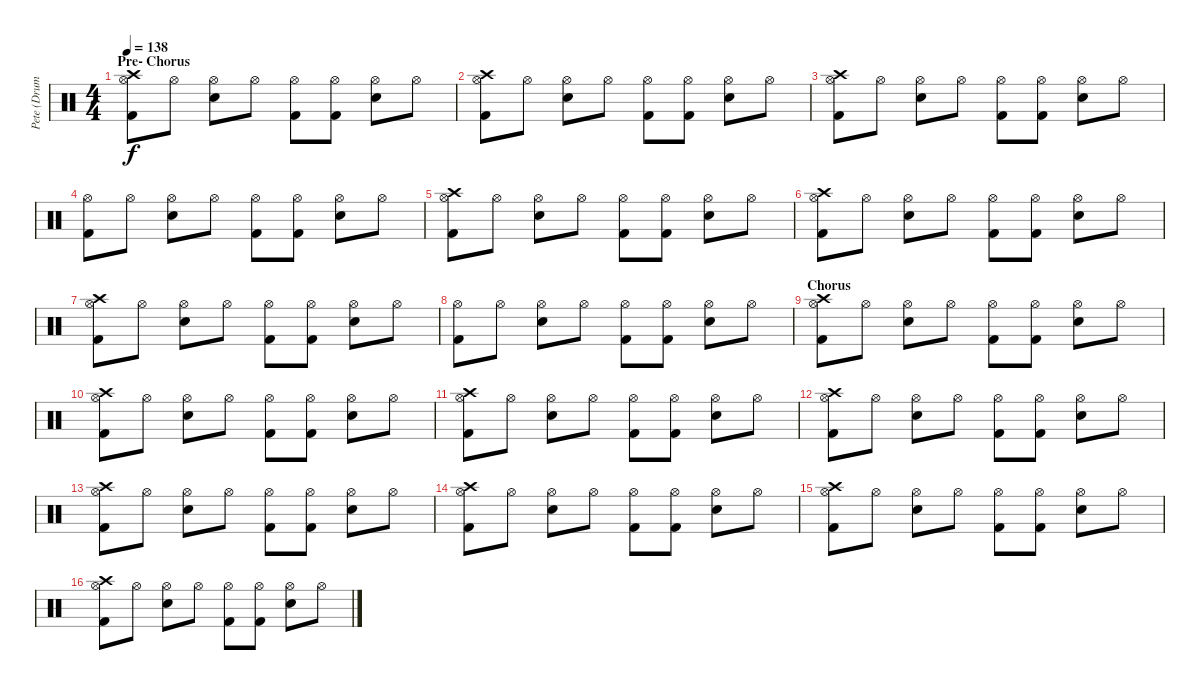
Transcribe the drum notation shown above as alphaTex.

\track ("Pete (Drums)" "Pete (Drum") {instrument percussion}
\staff {score}
\articulation defaults
\ts (4 4)
\section ("" "Pre- Chorus")
\tempo 138
\clef neutral
\ks c
("Hi-Hat (open)" "Crash high (hit)" "Kick (hit) 2").8{dy f} "Hi-Hat (open)".8 ("Hi-Hat (open)" "Snare (hit) 2").8 "Hi-Hat (open)".8 ("Hi-Hat (open)" "Kick (hit) 2").8 ("Hi-Hat (open)" "Kick (hit) 2").8 ("Hi-Hat (open)" "Snare (hit) 2").8 "Hi-Hat (open)".8 |
("Hi-Hat (open)" "Crash high (hit)" "Kick (hit) 2").8 "Hi-Hat (open)".8 ("Hi-Hat (open)" "Snare (hit) 2").8 "Hi-Hat (open)".8 ("Hi-Hat (open)" "Kick (hit) 2").8 ("Hi-Hat (open)" "Kick (hit) 2").8 ("Hi-Hat (open)" "Snare (hit) 2").8 "Hi-Hat (open)".8 |
("Hi-Hat (open)" "Crash high (hit)" "Kick (hit) 2").8 "Hi-Hat (open)".8 ("Hi-Hat (open)" "Snare (hit) 2").8 "Hi-Hat (open)".8 ("Hi-Hat (open)" "Kick (hit) 2").8 ("Hi-Hat (open)" "Kick (hit) 2").8 ("Hi-Hat (open)" "Snare (hit) 2").8 "Hi-Hat (open)".8 |
("Hi-Hat (open)" "Kick (hit) 2").8 "Hi-Hat (open)".8 ("Hi-Hat (open)" "Snare (hit) 2").8 "Hi-Hat (open)".8 ("Hi-Hat (open)" "Kick (hit) 2").8 ("Hi-Hat (open)" "Kick (hit) 2").8 ("Hi-Hat (open)" "Snare (hit) 2").8 "Hi-Hat (open)".8 |
("Hi-Hat (open)" "Crash high (hit)" "Kick (hit) 2").8 "Hi-Hat (open)".8 ("Hi-Hat (open)" "Snare (hit) 2").8 "Hi-Hat (open)".8 ("Hi-Hat (open)" "Kick (hit) 2").8 ("Hi-Hat (open)" "Kick (hit) 2").8 ("Hi-Hat (open)" "Snare (hit) 2").8 "Hi-Hat (open)".8 |
("Hi-Hat (open)" "Crash high (hit)" "Kick (hit) 2").8 "Hi-Hat (open)".8 ("Hi-Hat (open)" "Snare (hit) 2").8 "Hi-Hat (open)".8 ("Hi-Hat (open)" "Kick (hit) 2").8 ("Hi-Hat (open)" "Kick (hit) 2").8 ("Hi-Hat (open)" "Snare (hit) 2").8 "Hi-Hat (open)".8 |
("Hi-Hat (open)" "Crash high (hit)" "Kick (hit) 2").8 "Hi-Hat (open)".8 ("Hi-Hat (open)" "Snare (hit) 2").8 "Hi-Hat (open)".8 ("Hi-Hat (open)" "Kick (hit) 2").8 ("Hi-Hat (open)" "Kick (hit) 2").8 ("Hi-Hat (open)" "Snare (hit) 2").8 "Hi-Hat (open)".8 |
("Hi-Hat (open)" "Kick (hit) 2").8 "Hi-Hat (open)".8 ("Hi-Hat (open)" "Snare (hit) 2").8 "Hi-Hat (open)".8 ("Hi-Hat (open)" "Kick (hit) 2").8 ("Hi-Hat (open)" "Kick (hit) 2").8 ("Hi-Hat (open)" "Snare (hit) 2").8 "Hi-Hat (open)".8 |
\section ("" "Chorus")
("Hi-Hat (open)" "Crash high (hit)" "Kick (hit) 2").8 "Hi-Hat (open)".8 ("Hi-Hat (open)" "Snare (hit) 2").8 "Hi-Hat (open)".8 ("Hi-Hat (open)" "Kick (hit) 2").8 ("Hi-Hat (open)" "Kick (hit) 2").8 ("Hi-Hat (open)" "Snare (hit) 2").8 "Hi-Hat (open)".8 |
("Hi-Hat (open)" "Crash high (hit)" "Kick (hit) 2").8 "Hi-Hat (open)".8 ("Hi-Hat (open)" "Snare (hit) 2").8 "Hi-Hat (open)".8 ("Hi-Hat (open)" "Kick (hit) 2").8 ("Hi-Hat (open)" "Kick (hit) 2").8 ("Hi-Hat (open)" "Snare (hit) 2").8 "Hi-Hat (open)".8 |
("Hi-Hat (open)" "Crash high (hit)" "Kick (hit) 2").8 "Hi-Hat (open)".8 ("Hi-Hat (open)" "Snare (hit) 2").8 "Hi-Hat (open)".8 ("Hi-Hat (open)" "Kick (hit) 2").8 ("Hi-Hat (open)" "Kick (hit) 2").8 ("Hi-Hat (open)" "Snare (hit) 2").8 "Hi-Hat (open)".8 |
("Hi-Hat (open)" "Crash high (hit)" "Kick (hit) 2").8 "Hi-Hat (open)".8 ("Hi-Hat (open)" "Snare (hit) 2").8 "Hi-Hat (open)".8 ("Hi-Hat (open)" "Kick (hit) 2").8 ("Hi-Hat (open)" "Kick (hit) 2").8 ("Hi-Hat (open)" "Snare (hit) 2").8 "Hi-Hat (open)".8 |
("Hi-Hat (open)" "Crash high (hit)" "Kick (hit) 2").8 "Hi-Hat (open)".8 ("Hi-Hat (open)" "Snare (hit) 2").8 "Hi-Hat (open)".8 ("Hi-Hat (open)" "Kick (hit) 2").8 ("Hi-Hat (open)" "Kick (hit) 2").8 ("Hi-Hat (open)" "Snare (hit) 2").8 "Hi-Hat (open)".8 |
("Hi-Hat (open)" "Crash high (hit)" "Kick (hit) 2").8 "Hi-Hat (open)".8 ("Hi-Hat (open)" "Snare (hit) 2").8 "Hi-Hat (open)".8 ("Hi-Hat (open)" "Kick (hit) 2").8 ("Hi-Hat (open)" "Kick (hit) 2").8 ("Hi-Hat (open)" "Snare (hit) 2").8 "Hi-Hat (open)".8 |
("Hi-Hat (open)" "Crash high (hit)" "Kick (hit) 2").8 "Hi-Hat (open)".8 ("Hi-Hat (open)" "Snare (hit) 2").8 "Hi-Hat (open)".8 ("Hi-Hat (open)" "Kick (hit) 2").8 ("Hi-Hat (open)" "Kick (hit) 2").8 ("Hi-Hat (open)" "Snare (hit) 2").8 "Hi-Hat (open)".8 |
("Hi-Hat (open)" "Crash high (hit)" "Kick (hit) 2").8 "Hi-Hat (open)".8 ("Hi-Hat (open)" "Snare (hit) 2").8 "Hi-Hat (open)".8 ("Hi-Hat (open)" "Kick (hit) 2").8 ("Hi-Hat (open)" "Kick (hit) 2").8 ("Hi-Hat (open)" "Snare (hit) 2").8 "Hi-Hat (open)".8
